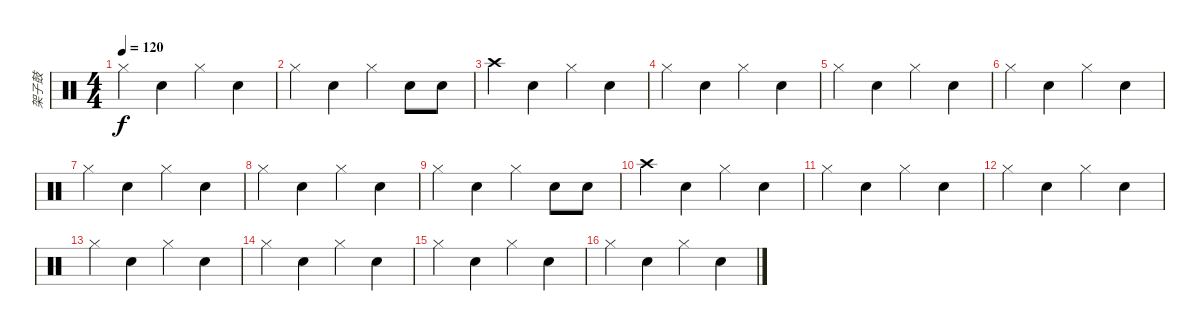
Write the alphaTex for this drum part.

\track ("架子鼓" "架子鼓") {instrument percussion}
\staff {score}
\articulation defaults
\ts (4 4)
\tempo 120
\clef neutral
\ks c "Hi-Hat (closed)".4{dy f} "Snare (hit) 2".4 "Hi-Hat (closed)".4 "Snare (hit) 2".4
|
"Hi-Hat (closed)".4 "Snare (hit) 2".4 "Hi-Hat (closed)".4 "Snare (hit) 2".8 "Snare (hit) 2".8 |
"Crash high (hit)".4 "Snare (hit) 2".4 "Hi-Hat (closed)".4 "Snare (hit) 2".4 |
"Hi-Hat (closed)".4 "Snare (hit) 2".4 "Hi-Hat (closed)".4 "Snare (hit) 2".4 |
"Hi-Hat (closed)".4 "Snare (hit) 2".4 "Hi-Hat (closed)".4 "Snare (hit) 2".4 |
"Hi-Hat (closed)".4 "Snare (hit) 2".4 "Hi-Hat (closed)".4 "Snare (hit) 2".4 |
"Hi-Hat (closed)".4 "Snare (hit) 2".4 "Hi-Hat (closed)".4 "Snare (hit) 2".4 |
"Hi-Hat (closed)".4 "Snare (hit) 2".4 "Hi-Hat (closed)".4 "Snare (hit) 2".4 |
"Hi-Hat (closed)".4 "Snare (hit) 2".4 "Hi-Hat (closed)".4 "Snare (hit) 2".8 "Snare (hit) 2".8 |
"Crash high (hit)".4 "Snare (hit) 2".4 "Hi-Hat (closed)".4 "Snare (hit) 2".4 |
"Hi-Hat (closed)".4 "Snare (hit) 2".4 "Hi-Hat (closed)".4 "Snare (hit) 2".4 |
"Hi-Hat (closed)".4 "Snare (hit) 2".4 "Hi-Hat (closed)".4 "Snare (hit) 2".4 |
"Hi-Hat (closed)".4 "Snare (hit) 2".4 "Hi-Hat (closed)".4 "Snare (hit) 2".4 |
"Hi-Hat (closed)".4 "Snare (hit) 2".4 "Hi-Hat (closed)".4 "Snare (hit) 2".4 |
"Hi-Hat (closed)".4 "Snare (hit) 2".4 "Hi-Hat (closed)".4 "Snare (hit) 2".4 |
"Hi-Hat (closed)".4 "Snare (hit) 2".4 "Hi-Hat (closed)".4 "Snare (hit) 2".4
